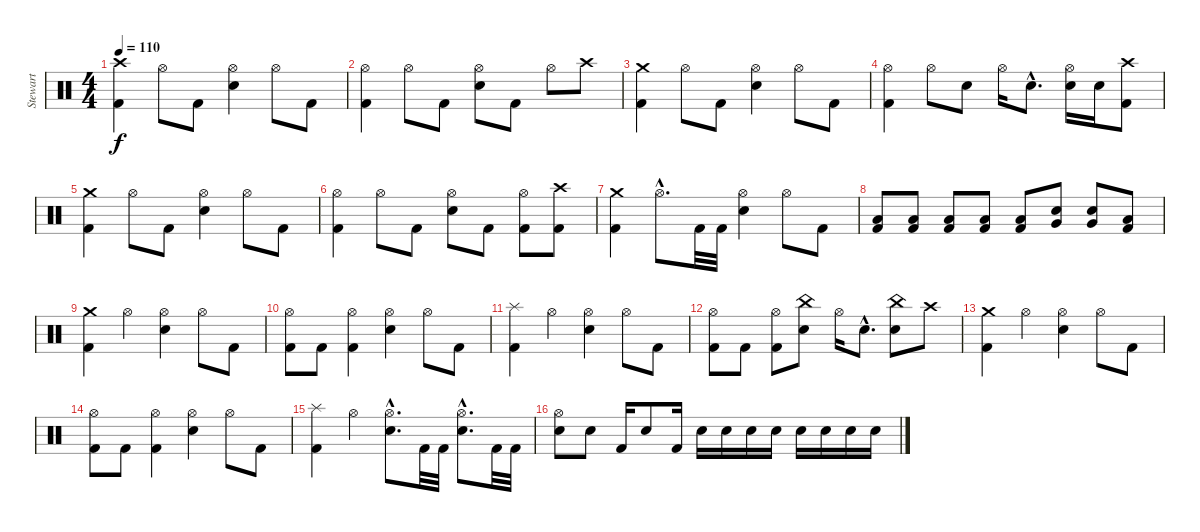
\track ("Stewart" "Stewart") {instrument percussion}
\staff {score}
\articulation defaults
\ts (4 4)
\tempo 110
\clef neutral
\ks c
("Crash high (hit)" "Kick (hit) 2").4{dy f} "Hi-Hat (open)".8 "Kick (hit) 2".8 ("Hi-Hat (open)" "Electric Snare (hit)").4 "Hi-Hat (open)".8 "Kick (hit) 2".8 |
("Hi-Hat (open)" "Kick (hit) 2").4 "Hi-Hat (open)".8 "Kick (hit) 2".8 ("Hi-Hat (open)" "Electric Snare (hit)").8 "Kick (hit) 2".8 "Hi-Hat (open)".8 "Crash high (hit)".8 |
("Crash medium (hit)" "Kick (hit) 2").4 "Hi-Hat (open)".8 "Kick (hit) 2".8 ("Hi-Hat (open)" "Electric Snare (hit)").4 "Hi-Hat (open)".8 "Kick (hit) 2".8 |
("Hi-Hat (open)" "Kick (hit) 2").4 "Hi-Hat (open)".8 "Electric Snare (hit)".8 "Hi-Hat (open)".16 "Electric Snare (hit)"{hac}.8{d} ("Hi-Hat (open)" "Electric Snare (hit)").16 "Electric Snare (hit)".16 ("Crash high (hit)" "Kick (hit) 2").8 |
("Crash medium (hit)" "Kick (hit) 2").4 "Hi-Hat (open)".8 "Kick (hit) 2".8 ("Hi-Hat (open)" "Electric Snare (hit)").4 "Hi-Hat (open)".8 "Kick (hit) 2".8 |
("Hi-Hat (open)" "Kick (hit) 2").4 "Hi-Hat (open)".8 "Kick (hit) 2".8 ("Hi-Hat (open)" "Electric Snare (hit)").8 "Kick (hit) 2".8 ("Hi-Hat (open)" "Kick (hit) 2").8 ("Crash high (hit)" "Kick (hit) 2").8 |
("Crash medium (hit)" "Kick (hit) 2").4 "Hi-Hat (open)"{hac}.8{d} "Kick (hit) 2".32 "Kick (hit) 2".32 ("Hi-Hat (open)" "Electric Snare (hit)").4 "Hi-Hat (open)".8 "Kick (hit) 2".8 |
("Low Tom (hit)" "Kick (hit) 2").8 ("Low Tom (hit)" "Kick (hit) 2").8 ("Low Tom (hit)" "Kick (hit) 2").8 ("Low Tom (hit)" "Kick (hit) 2").8 ("Low Tom (hit)" "Kick (hit) 2").8 ("Electric Snare (hit)" "Very Low Tom (hit)").8 ("Electric Snare (hit)" "Very Low Tom (hit)").8 ("Low Tom (hit)" "Kick (hit) 2").8 |
("Crash medium (hit)" "Kick (hit) 2").4 "Hi-Hat (open)".4 ("Hi-Hat (open)" "Electric Snare (hit)").4 "Hi-Hat (open)".8 "Kick (hit) 2".8 |
("Hi-Hat (open)" "Kick (hit) 2").8 "Kick (hit) 2".8 ("Hi-Hat (open)" "Kick (hit) 2").4 ("Hi-Hat (open)" "Electric Snare (hit)").4 "Hi-Hat (open)".8 "Kick (hit) 2".8 |
("Splash (hit)" "Kick (hit) 2").4 "Hi-Hat (open)".4 ("Hi-Hat (open)" "Electric Snare (hit)").4 "Hi-Hat (open)".8 "Kick (hit) 2".8 |
("Hi-Hat (open)" "Kick (hit) 2").8 "Kick (hit) 2".8 ("Hi-Hat (open)" "Kick (hit) 2").8 ("China (hit)" "Electric Snare (hit)").8 "Hi-Hat (open)".16 "Electric Snare (hit)"{hac}.8{d} ("China (hit)" "Electric Snare (hit)").8 "Crash high (hit)".8 |
("Crash medium (hit)" "Kick (hit) 2").4 "Hi-Hat (open)".4 ("Hi-Hat (open)" "Electric Snare (hit)").4 "Hi-Hat (open)".8 "Kick (hit) 2".8 |
("Hi-Hat (open)" "Kick (hit) 2").8 "Kick (hit) 2".8 ("Hi-Hat (open)" "Kick (hit) 2").4 ("Hi-Hat (open)" "Electric Snare (hit)").4 "Hi-Hat (open)".8 "Kick (hit) 2".8 |
("Splash (hit)" "Kick (hit) 2").4 "Hi-Hat (open)".4 ("Hi-Hat (open)"{hac} "Electric Snare (hit)"{hac}).8{d} "Kick (hit) 2".32 "Kick (hit) 2".32 ("Hi-Hat (open)"{hac} "Electric Snare (hit)"{hac}).8{d} "Kick (hit) 2".32 "Kick (hit) 2".32 |
("Hi-Hat (open)" "Electric Snare (hit)").8 "Electric Snare (hit)".8 "Kick (hit) 2".16 "Electric Snare (hit)".8 "Kick (hit) 2".16 "Electric Snare (hit)".16 "Electric Snare (hit)".16 "Electric Snare (hit)".16 "Electric Snare (hit)".16 "Electric Snare (hit)".16 "Electric Snare (hit)".16 "Electric Snare (hit)".16 "Electric Snare (hit)".16
